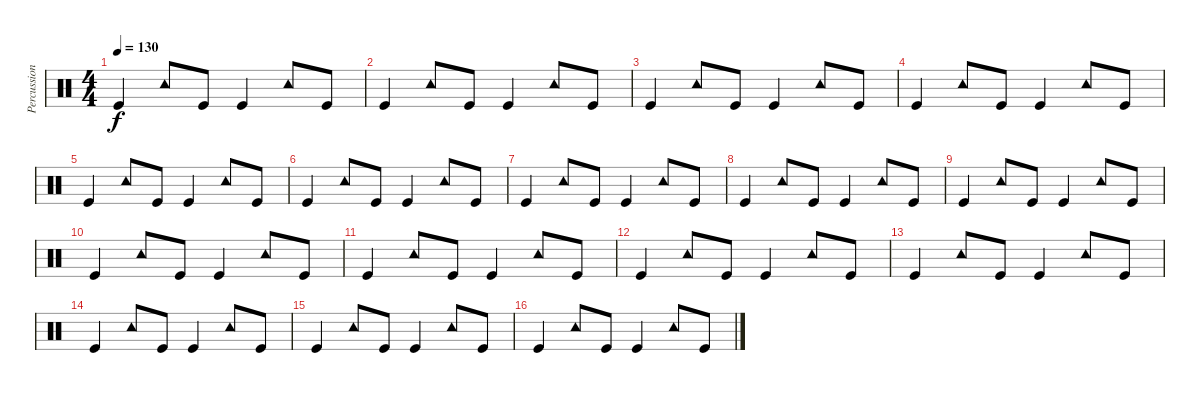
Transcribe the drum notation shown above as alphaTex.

\track ("Percussion" "Percussion") {instrument percussion}
\staff {score}
\articulation defaults
\ts (4 4)
\tempo 130
\clef neutral
\ks c "Kick (hit)".4{dy f} "Tambourine (hit)".8 "Kick (hit)".8 "Kick (hit)".4 "Tambourine (hit)".8 "Kick (hit)".8
|
"Kick (hit)".4 "Tambourine (hit)".8 "Kick (hit)".8 "Kick (hit)".4 "Tambourine (hit)".8 "Kick (hit)".8 |
"Kick (hit)".4 "Tambourine (hit)".8 "Kick (hit)".8 "Kick (hit)".4 "Tambourine (hit)".8 "Kick (hit)".8 |
"Kick (hit)".4 "Tambourine (hit)".8 "Kick (hit)".8 "Kick (hit)".4 "Tambourine (hit)".8 "Kick (hit)".8 |
"Kick (hit)".4 "Tambourine (hit)".8 "Kick (hit)".8 "Kick (hit)".4 "Tambourine (hit)".8 "Kick (hit)".8 |
"Kick (hit)".4 "Tambourine (hit)".8 "Kick (hit)".8 "Kick (hit)".4 "Tambourine (hit)".8 "Kick (hit)".8 |
"Kick (hit)".4 "Tambourine (hit)".8 "Kick (hit)".8 "Kick (hit)".4 "Tambourine (hit)".8 "Kick (hit)".8 |
"Kick (hit)".4 "Tambourine (hit)".8 "Kick (hit)".8 "Kick (hit)".4 "Tambourine (hit)".8 "Kick (hit)".8 |
"Kick (hit)".4 "Tambourine (hit)".8 "Kick (hit)".8 "Kick (hit)".4 "Tambourine (hit)".8 "Kick (hit)".8 |
"Kick (hit)".4 "Tambourine (hit)".8 "Kick (hit)".8 "Kick (hit)".4 "Tambourine (hit)".8 "Kick (hit)".8 |
"Kick (hit)".4 "Tambourine (hit)".8 "Kick (hit)".8 "Kick (hit)".4 "Tambourine (hit)".8 "Kick (hit)".8 |
"Kick (hit)".4 "Tambourine (hit)".8 "Kick (hit)".8 "Kick (hit)".4 "Tambourine (hit)".8 "Kick (hit)".8 |
"Kick (hit)".4 "Tambourine (hit)".8 "Kick (hit)".8 "Kick (hit)".4 "Tambourine (hit)".8 "Kick (hit)".8 |
"Kick (hit)".4 "Tambourine (hit)".8 "Kick (hit)".8 "Kick (hit)".4 "Tambourine (hit)".8 "Kick (hit)".8 |
"Kick (hit)".4 "Tambourine (hit)".8 "Kick (hit)".8 "Kick (hit)".4 "Tambourine (hit)".8 "Kick (hit)".8 |
"Kick (hit)".4 "Tambourine (hit)".8 "Kick (hit)".8 "Kick (hit)".4 "Tambourine (hit)".8 "Kick (hit)".8
